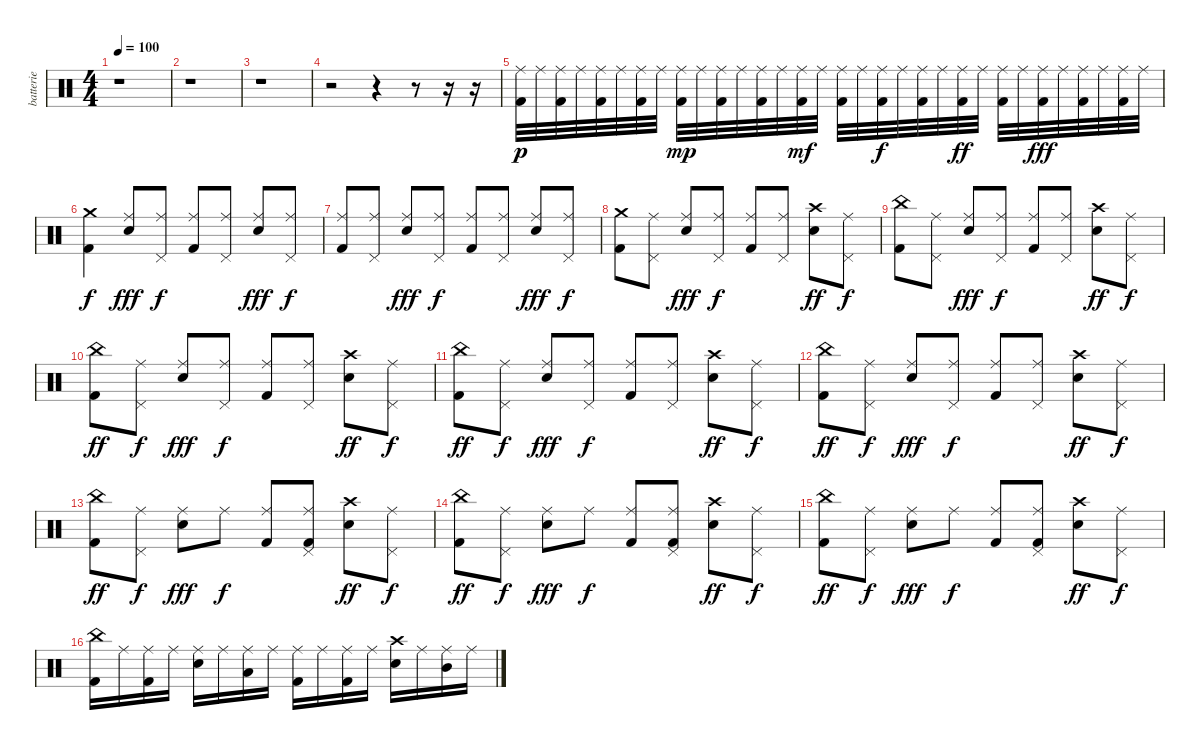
\track ("batterie" "batterie") {instrument percussion}
\staff {score}
\articulation defaults
\ts (4 4)
\tempo 100
\clef neutral
\ks c
r.1{dy p} |
r.1 |
r.1 |
r.2 r.4 r.8 r.16 r.16 |
("Ride (middle)" "Kick (hit) 2").32 "Ride (middle)".32 ("Ride (middle)" "Kick (hit) 2").32 "Ride (middle)".32 ("Ride (middle)" "Kick (hit) 2").32 "Ride (middle)".32 ("Ride (middle)" "Kick (hit) 2").32 "Ride (middle)".32 ("Ride (middle)" "Kick (hit) 2").32{dy mp} "Ride (middle)".32 ("Ride (middle)" "Kick (hit) 2").32 "Ride (middle)".32 ("Ride (middle)" "Kick (hit) 2").32 "Ride (middle)".32 ("Ride (middle)" "Kick (hit) 2").32{dy mf} "Ride (middle)".32 ("Ride (middle)" "Kick (hit) 2").32 "Ride (middle)".32 ("Ride (middle)" "Kick (hit) 2").32{dy f} "Ride (middle)".32 ("Ride (middle)" "Kick (hit) 2").32 "Ride (middle)".32 ("Ride (middle)" "Kick (hit) 2").32{dy ff} "Ride (middle)".32 ("Ride (middle)" "Kick (hit) 2").32 "Ride (middle)".32 ("Ride (middle)" "Kick (hit) 2").32{dy fff} "Ride (middle)".32 ("Ride (middle)" "Kick (hit) 2").32 "Ride (middle)".32 ("Ride (middle)" "Kick (hit) 2").32 "Ride (middle)".32 |
("Crash medium (hit)" "Kick (hit) 2").4{dy f} ("Ride (middle)" "Snare (hit) 2").8{dy fff} ("Ride (middle)" "Pedal Hi-Hat (hit)").8{dy f} ("Ride (middle)" "Kick (hit) 2").8 ("Ride (middle)" "Pedal Hi-Hat (hit)").8 ("Ride (middle)" "Snare (hit) 2").8{dy fff} ("Ride (middle)" "Pedal Hi-Hat (hit)").8{dy f} |
("Ride (middle)" "Kick (hit) 2").8 ("Ride (middle)" "Pedal Hi-Hat (hit)").8 ("Ride (middle)" "Snare (hit) 2").8{dy fff} ("Ride (middle)" "Pedal Hi-Hat (hit)").8{dy f} ("Ride (middle)" "Kick (hit) 2").8 ("Ride (middle)" "Pedal Hi-Hat (hit)").8 ("Ride (middle)" "Snare (hit) 2").8{dy fff} ("Ride (middle)" "Pedal Hi-Hat (hit)").8{dy f} |
("Crash medium (hit)" "Kick (hit) 2").8 ("Ride (middle)" "Pedal Hi-Hat (hit)").8 ("Ride (middle)" "Snare (hit) 2").8{dy fff} ("Ride (middle)" "Pedal Hi-Hat (hit)").8{dy f} ("Ride (middle)" "Kick (hit) 2").8 ("Ride (middle)" "Pedal Hi-Hat (hit)").8 ("Crash high (hit)" "Snare (hit) 2").8{dy ff} ("Ride (middle)" "Pedal Hi-Hat (hit)").8{dy f} |
("China (hit)" "Kick (hit) 2").8 ("Ride (middle)" "Pedal Hi-Hat (hit)").8 ("Ride (middle)" "Snare (hit) 2").8{dy fff} ("Ride (middle)" "Pedal Hi-Hat (hit)").8{dy f} ("Ride (middle)" "Kick (hit) 2").8 ("Ride (middle)" "Pedal Hi-Hat (hit)").8 ("Crash high (hit)" "Snare (hit) 2").8{dy ff} ("Ride (middle)" "Pedal Hi-Hat (hit)").8{dy f} |
("China (hit)" "Kick (hit) 2").8{dy ff} ("Ride (middle)" "Pedal Hi-Hat (hit)").8{dy f} ("Ride (middle)" "Snare (hit) 2").8{dy fff} ("Ride (middle)" "Pedal Hi-Hat (hit)").8{dy f} ("Ride (middle)" "Kick (hit) 2").8 ("Ride (middle)" "Pedal Hi-Hat (hit)").8 ("Crash high (hit)" "Snare (hit) 2").8{dy ff} ("Ride (middle)" "Pedal Hi-Hat (hit)").8{dy f} |
("China (hit)" "Kick (hit) 2").8{dy ff} ("Ride (middle)" "Pedal Hi-Hat (hit)").8{dy f} ("Ride (middle)" "Snare (hit) 2").8{dy fff} ("Ride (middle)" "Pedal Hi-Hat (hit)").8{dy f} ("Ride (middle)" "Kick (hit) 2").8 ("Ride (middle)" "Pedal Hi-Hat (hit)").8 ("Crash high (hit)" "Snare (hit) 2").8{dy ff} ("Ride (middle)" "Pedal Hi-Hat (hit)").8{dy f} |
("China (hit)" "Kick (hit) 2").8{dy ff} ("Ride (middle)" "Pedal Hi-Hat (hit)").8{dy f} ("Ride (middle)" "Snare (hit) 2").8{dy fff} ("Ride (middle)" "Pedal Hi-Hat (hit)").8{dy f} ("Ride (middle)" "Kick (hit) 2").8 ("Ride (middle)" "Pedal Hi-Hat (hit)").8 ("Crash high (hit)" "Snare (hit) 2").8{dy ff} ("Ride (middle)" "Pedal Hi-Hat (hit)").8{dy f} |
("China (hit)" "Kick (hit) 2").8{dy ff} ("Ride (middle)" "Pedal Hi-Hat (hit)").8{dy f} ("Ride (middle)" "Snare (hit) 2").8{dy fff} "Ride (middle)".8{dy f} ("Ride (middle)" "Kick (hit) 2").8 ("Ride (middle)" "Pedal Hi-Hat (hit)" "Kick (hit) 2").8 ("Crash high (hit)" "Snare (hit) 2").8{dy ff} ("Ride (middle)" "Pedal Hi-Hat (hit)").8{dy f} |
("China (hit)" "Kick (hit) 2").8{dy ff} ("Ride (middle)" "Pedal Hi-Hat (hit)").8{dy f} ("Ride (middle)" "Snare (hit) 2").8{dy fff} "Ride (middle)".8{dy f} ("Ride (middle)" "Kick (hit) 2").8 ("Ride (middle)" "Pedal Hi-Hat (hit)" "Kick (hit) 2").8 ("Crash high (hit)" "Snare (hit) 2").8{dy ff} ("Ride (middle)" "Pedal Hi-Hat (hit)").8{dy f} |
("China (hit)" "Kick (hit) 2").8{dy ff} ("Ride (middle)" "Pedal Hi-Hat (hit)").8{dy f} ("Ride (middle)" "Snare (hit) 2").8{dy fff} "Ride (middle)".8{dy f} ("Ride (middle)" "Kick (hit) 2").8 ("Ride (middle)" "Pedal Hi-Hat (hit)" "Kick (hit) 2").8 ("Crash high (hit)" "Snare (hit) 2").8{dy ff} ("Ride (middle)" "Pedal Hi-Hat (hit)").8{dy f} |
("China (hit)" "Kick (hit) 2").16 "Ride (middle)".16 ("Ride (middle)" "Kick (hit) 2").16 "Ride (middle)".16 ("Ride (middle)" "Snare (hit) 2").16 "Ride (middle)".16 ("Ride (middle)" "Low Floor Tom (hit)").16 "Ride (middle)".16 ("Ride (middle)" "Kick (hit) 2").16 "Ride (middle)".16 ("Ride (middle)" "Kick (hit) 2").16 "Ride (middle)".16 ("Crash high (hit)" "Snare (hit) 2").16 "Ride (middle)".16 ("Ride (middle)" "Mid Tom (hit)").16 "Ride (middle)".16
